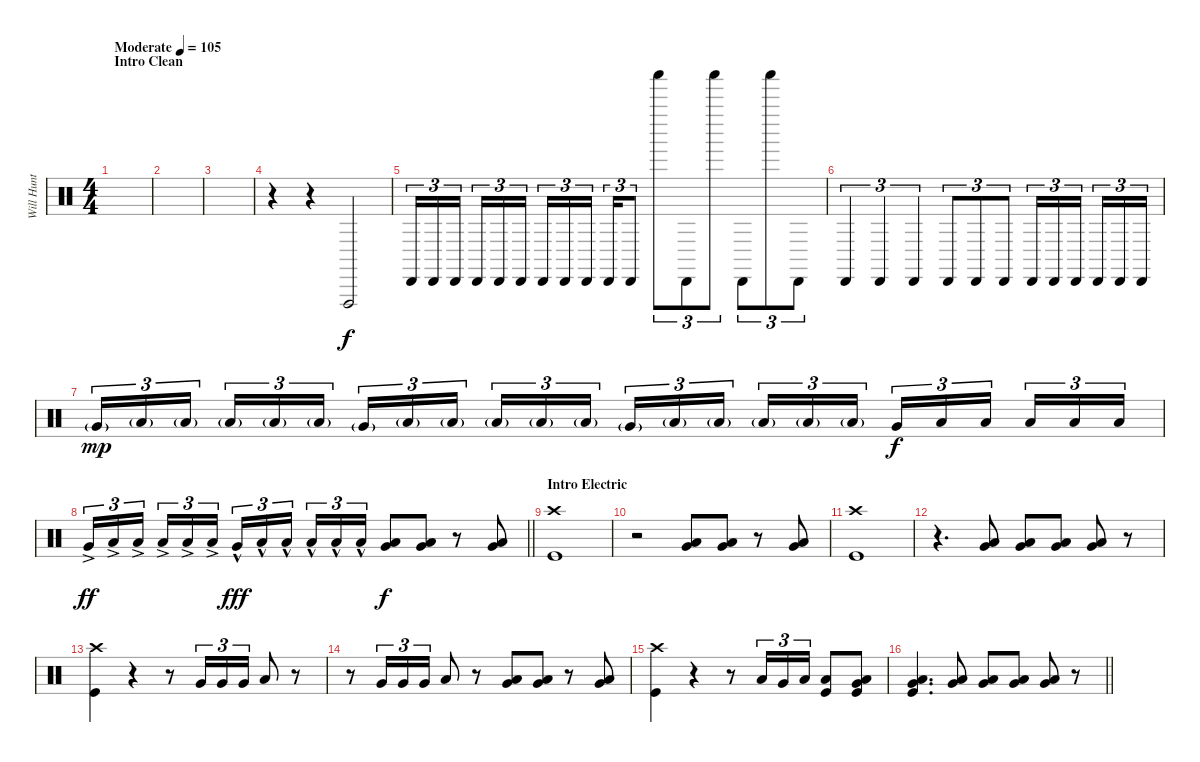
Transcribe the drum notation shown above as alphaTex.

\track ("Will Hunt" "Will Hunt") {instrument percussion}
\staff {score}
\articulation defaults
\ts (4 4)
\section ("" "Intro Clean")
\tempo (105 "Moderate")
\clef neutral
\ks c
|
|
|
r.4 r.4 "Vibraslap (hit)".2 |
"Cabasa (hit)".16{tu (3 2)} "Cabasa (hit)".16{tu (3 2)} "Cabasa (hit)".16{tu (3 2) beam splitsecondary} "Cabasa (hit)".16{tu (3 2)} "Cabasa (hit)".16{tu (3 2)} "Cabasa (hit)".16{tu (3 2)} "Cabasa (hit)".16{tu (3 2)} "Cabasa (hit)".16{tu (3 2)} "Cabasa (hit)".16{tu (3 2) beam splitsecondary} "Cabasa (hit)".16{tu (3 2)} "Cabasa (hit)".8{tu (3 2)} "Shaker (hit)".8{tu (3 2)} "Cabasa (hit)".8{tu (3 2)} "Shaker (hit)".8{tu (3 2)} "Cabasa (hit)".8{tu (3 2)} "Shaker (hit)".8{tu (3 2)} "Cabasa (hit)".8{tu (3 2)} |
"Cabasa (hit)".4{tu (3 2)} "Cabasa (hit)".4{tu (3 2)} "Cabasa (hit)".4{tu (3 2)} "Cabasa (hit)".8{tu (3 2)} "Cabasa (hit)".8{tu (3 2)} "Cabasa (hit)".8{tu (3 2)} "Cabasa (hit)".16{tu (3 2)} "Cabasa (hit)".16{tu (3 2)} "Cabasa (hit)".16{tu (3 2) beam splitsecondary} "Cabasa (hit)".16{tu (3 2)} "Cabasa (hit)".16{tu (3 2)} "Cabasa (hit)".16{tu (3 2)} |
"Very Low Tom (hit)"{g}.16{tu (3 2) dy mp} "Low Floor Tom (hit)"{g}.16{tu (3 2)} "Low Floor Tom (hit)"{g}.16{tu (3 2) beam splitsecondary} "Low Floor Tom (hit)"{g}.16{tu (3 2)} "Low Floor Tom (hit)"{g}.16{tu (3 2)} "Low Floor Tom (hit)"{g}.16{tu (3 2)} "Very Low Tom (hit)"{g}.16{tu (3 2)} "Low Floor Tom (hit)"{g}.16{tu (3 2)} "Low Floor Tom (hit)"{g}.16{tu (3 2) beam splitsecondary} "Low Floor Tom (hit)"{g}.16{tu (3 2)} "Low Floor Tom (hit)"{g}.16{tu (3 2)} "Low Floor Tom (hit)"{g}.16{tu (3 2)} "Very Low Tom (hit)"{g}.16{tu (3 2)} "Low Floor Tom (hit)"{g}.16{tu (3 2)} "Low Floor Tom (hit)"{g}.16{tu (3 2) beam splitsecondary} "Low Floor Tom (hit)"{g}.16{tu (3 2)} "Low Floor Tom (hit)"{g}.16{tu (3 2)} "Low Floor Tom (hit)"{g}.16{tu (3 2)} "Very Low Tom (hit)".16{tu (3 2) dy f} "Low Floor Tom (hit)".16{tu (3 2)} "Low Floor Tom (hit)".16{tu (3 2) beam splitsecondary} "Low Floor Tom (hit)".16{tu (3 2)} "Low Floor Tom (hit)".16{tu (3 2)} "Low Floor Tom (hit)".16{tu (3 2)} |
\barLineRight lightlight "Very Low Tom (hit)"{ac}.16{tu (3 2) dy ff} "Low Floor Tom (hit)"{ac}.16{tu (3 2)} "Low Floor Tom (hit)"{ac}.16{tu (3 2) beam splitsecondary} "Low Floor Tom (hit)"{ac}.16{tu (3 2)} "Low Floor Tom (hit)"{ac}.16{tu (3 2)} "Low Floor Tom (hit)"{ac}.16{tu (3 2)} "Very Low Tom (hit)"{hac}.16{tu (3 2) dy fff} "Low Floor Tom (hit)"{hac}.16{tu (3 2)} "Low Floor Tom (hit)"{hac}.16{tu (3 2) beam splitsecondary} "Low Floor Tom (hit)"{hac}.16{tu (3 2)} "Low Floor Tom (hit)"{hac}.16{tu (3 2)} "Low Floor Tom (hit)"{hac}.16{tu (3 2)}
("Very Low Tom (hit)" "Low Floor Tom (hit)").8{dy f} ("Very Low Tom (hit)" "Low Floor Tom (hit)").8 r.8 ("Very Low Tom (hit)" "Low Floor Tom (hit)").8 |
\section ("" "Intro Electric")
("Crash high (hit)" "Kick (hit)").1 |
r.2 ("Very Low Tom (hit)" "Low Floor Tom (hit)").8 ("Very Low Tom (hit)" "Low Floor Tom (hit)").8 r.8 ("Very Low Tom (hit)" "Low Floor Tom (hit)").8 |
("Crash high (hit)" "Kick (hit)").1 |
r.4{d} ("Very Low Tom (hit)" "Low Floor Tom (hit)").8 ("Very Low Tom (hit)" "Low Floor Tom (hit)").8 ("Very Low Tom (hit)" "Low Floor Tom (hit)").8 ("Very Low Tom (hit)" "Low Floor Tom (hit)").8 r.8 |
("Crash high (hit)" "Kick (hit)").4 r.4 r.8 "Very Low Tom (hit)".16{tu (3 2)} "Very Low Tom (hit)".16{tu (3 2)} "Very Low Tom (hit)".16{tu (3 2)} "Low Floor Tom (hit)".8 r.8 |
r.8 "Very Low Tom (hit)".16{tu (3 2)} "Very Low Tom (hit)".16{tu (3 2)} "Very Low Tom (hit)".16{tu (3 2)} "Low Floor Tom (hit)".8 r.8 ("Very Low Tom (hit)" "Low Floor Tom (hit)").8 ("Very Low Tom (hit)" "Low Floor Tom (hit)").8 r.8 ("Very Low Tom (hit)" "Low Floor Tom (hit)").8 |
("Crash high (hit)" "Kick (hit)").4 r.4 r.8 "Low Tom (hit)".16{tu (3 2)} "Very Low Tom (hit)".16{tu (3 2)} "Low Floor Tom (hit)".16{tu (3 2)} ("Low Floor Tom (hit)" "Kick (hit)").8 ("Very Low Tom (hit)" "Low Floor Tom (hit)" "Kick (hit)").8 |
\barLineRight lightlight
("Very Low Tom (hit)" "Low Floor Tom (hit)" "Kick (hit)").4{d} ("Very Low Tom (hit)" "Low Floor Tom (hit)").8 ("Very Low Tom (hit)" "Low Floor Tom (hit)").8 ("Very Low Tom (hit)" "Low Floor Tom (hit)").8 ("Very Low Tom (hit)" "Low Floor Tom (hit)").8 r.8
